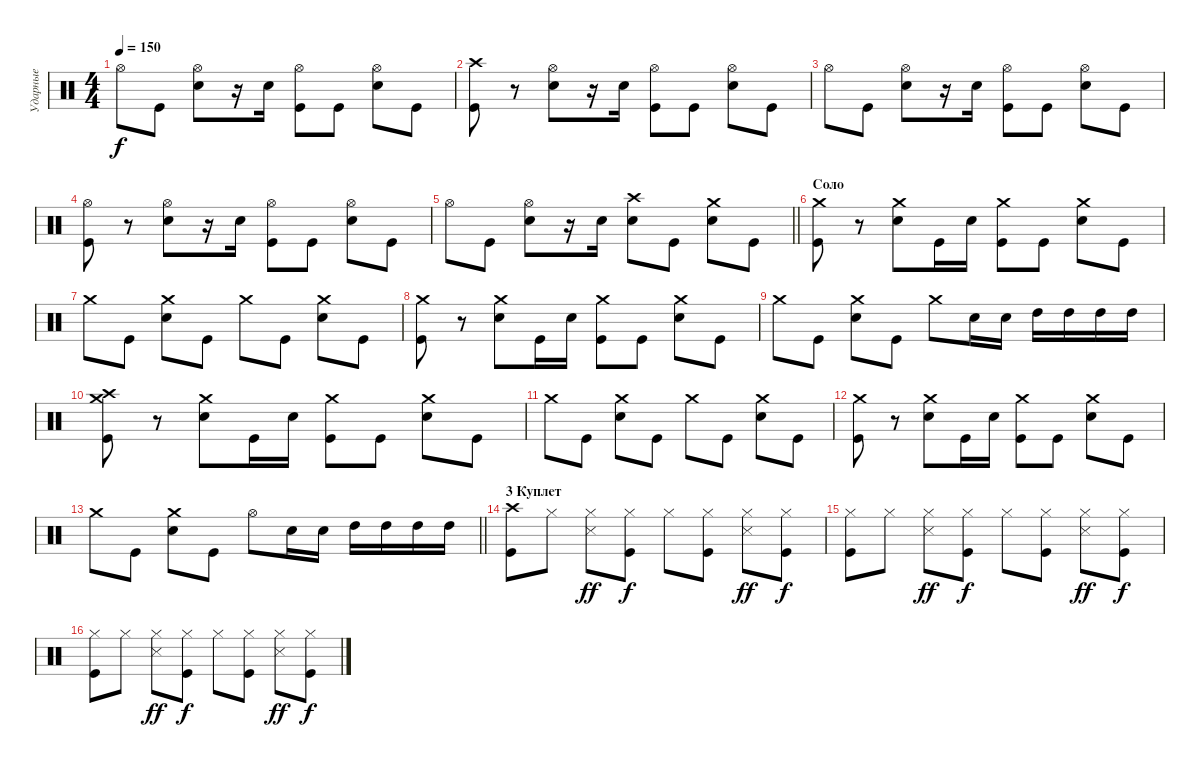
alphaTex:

\track ("Ударные" "Ударные") {instrument percussion}
\staff {score}
\articulation defaults
\ts (4 4)
\tempo 150
\clef neutral
\ks c "Hi-Hat (open)".8{dy f} "Kick (hit)".8
("Snare (hit) 2" "Hi-Hat (open)").8 r.16 "Snare (hit) 2".16 ("Kick (hit)" "Hi-Hat (open)").8 "Kick (hit)".8 ("Snare (hit) 2" "Hi-Hat (open)").8 "Kick (hit)".8 |
("Kick (hit)" "Crash high (hit)").8 r.8 ("Snare (hit) 2" "Hi-Hat (open)").8 r.16 "Snare (hit) 2".16 ("Kick (hit)" "Hi-Hat (open)").8 "Kick (hit)".8 ("Snare (hit) 2" "Hi-Hat (open)").8 "Kick (hit)".8 |
"Hi-Hat (open)".8 "Kick (hit)".8 ("Snare (hit) 2" "Hi-Hat (open)").8 r.16 "Snare (hit) 2".16 ("Kick (hit)" "Hi-Hat (open)").8 "Kick (hit)".8 ("Snare (hit) 2" "Hi-Hat (open)").8 "Kick (hit)".8 |
("Kick (hit)" "Hi-Hat (open)").8 r.8 ("Snare (hit) 2" "Hi-Hat (open)").8 r.16 "Snare (hit) 2".16 ("Kick (hit)" "Hi-Hat (open)").8 "Kick (hit)".8 ("Snare (hit) 2" "Hi-Hat (open)").8 "Kick (hit)".8 |
\barLineRight lightlight "Hi-Hat (open)".8 "Kick (hit)".8
("Snare (hit) 2" "Hi-Hat (open)").8 r.16 "Snare (hit) 2".16 ("Snare (hit) 2" "Crash high (hit)").8 "Kick (hit)".8 ("Snare (hit) 2" "Crash medium (hit)").8 "Kick (hit)".8 |
\section ("" "Соло")
("Kick (hit)" "Crash medium (hit)").8 r.8 ("Snare (hit) 2" "Crash medium (hit)").8 "Kick (hit)".16 "Snare (hit) 2".16 ("Kick (hit)" "Crash medium (hit)").8 "Kick (hit)".8 ("Snare (hit) 2" "Crash medium (hit)").8 "Kick (hit)".8 |
"Crash medium (hit)".8 "Kick (hit)".8 ("Snare (hit) 2" "Crash medium (hit)").8 "Kick (hit)".8 "Crash medium (hit)".8 "Kick (hit)".8 ("Snare (hit) 2" "Crash medium (hit)").8 "Kick (hit)".8 |
("Kick (hit)" "Crash medium (hit)").8 r.8 ("Snare (hit) 2" "Crash medium (hit)").8 "Kick (hit)".16 "Snare (hit) 2".16 ("Kick (hit)" "Crash medium (hit)").8 "Kick (hit)".8 ("Snare (hit) 2" "Crash medium (hit)").8 "Kick (hit)".8 |
"Crash medium (hit)".8 "Kick (hit)".8 ("Snare (hit) 2" "Crash medium (hit)").8 "Kick (hit)".8 "Crash medium (hit)".8 "Snare (hit) 2".16 "Snare (hit) 2".16 "High Tom (hit)".16 "High Tom (hit)".16 "High Tom (hit)".16 "High Tom (hit)".16 |
("Kick (hit)" "Crash high (hit)" "Crash medium (hit)").8 r.8 ("Snare (hit) 2" "Crash medium (hit)").8 "Kick (hit)".16 "Snare (hit) 2".16 ("Kick (hit)" "Crash medium (hit)").8 "Kick (hit)".8 ("Snare (hit) 2" "Crash medium (hit)").8 "Kick (hit)".8 |
"Crash medium (hit)".8 "Kick (hit)".8 ("Snare (hit) 2" "Crash medium (hit)").8 "Kick (hit)".8 "Crash medium (hit)".8 "Kick (hit)".8 ("Snare (hit) 2" "Crash medium (hit)").8 "Kick (hit)".8 |
("Kick (hit)" "Crash medium (hit)").8 r.8 ("Snare (hit) 2" "Crash medium (hit)").8 "Kick (hit)".16 "Snare (hit) 2".16 ("Kick (hit)" "Crash medium (hit)").8 "Kick (hit)".8 ("Snare (hit) 2" "Crash medium (hit)").8 "Kick (hit)".8 |
\barLineRight lightlight "Crash medium (hit)".8 "Kick (hit)".8
("Snare (hit) 2" "Crash medium (hit)").8 "Kick (hit)".8 "Hi-Hat (open)".8 "Snare (hit) 2".16 "Snare (hit) 2".16 "High Tom (hit)".16 "High Tom (hit)".16 "High Tom (hit)".16 "High Tom (hit)".16 |
\section ("" "3 Куплет")
("Kick (hit)" "Crash high (hit)").8 "Hi-Hat (closed)".8 ("Snare (side stick) 3" "Hi-Hat (closed)").8{dy ff} ("Kick (hit)" "Hi-Hat (closed)").8{dy f} "Hi-Hat (closed)".8 ("Kick (hit)" "Hi-Hat (closed)").8 ("Snare (side stick) 3" "Hi-Hat (closed)").8{dy ff} ("Kick (hit)" "Hi-Hat (closed)").8{dy f} |
("Kick (hit)" "Hi-Hat (closed)").8 "Hi-Hat (closed)".8 ("Snare (side stick) 3" "Hi-Hat (closed)").8{dy ff} ("Kick (hit)" "Hi-Hat (closed)").8{dy f} "Hi-Hat (closed)".8 ("Kick (hit)" "Hi-Hat (closed)").8 ("Snare (side stick) 3" "Hi-Hat (closed)").8{dy ff} ("Kick (hit)" "Hi-Hat (closed)").8{dy f} |
("Kick (hit)" "Hi-Hat (closed)").8 "Hi-Hat (closed)".8 ("Snare (side stick) 3" "Hi-Hat (closed)").8{dy ff} ("Kick (hit)" "Hi-Hat (closed)").8{dy f} "Hi-Hat (closed)".8 ("Kick (hit)" "Hi-Hat (closed)").8 ("Snare (side stick) 3" "Hi-Hat (closed)").8{dy ff} ("Kick (hit)" "Hi-Hat (closed)").8{dy f}
